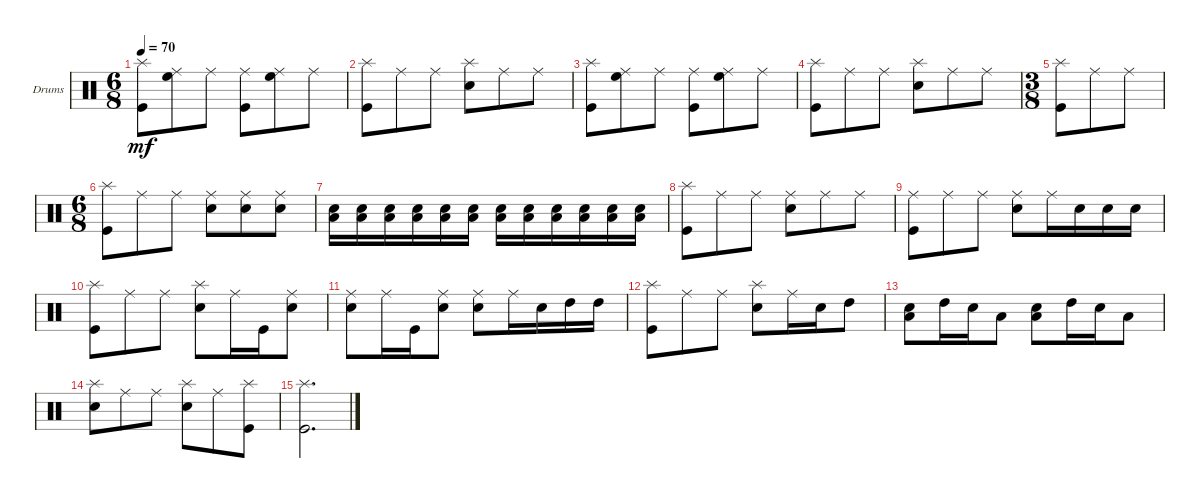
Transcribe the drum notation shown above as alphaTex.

\defaultSystemsLayout 4
\bracketExtendMode groupsimilarinstruments
\firstSystemTrackNameOrientation horizontal
\otherSystemsTrackNameOrientation horizontal
\track ("Drumkit" "Drums") {instrument percussion}
\staff {score}
\articulation defaults
\ts (6 8)
\tempo 70
\clef neutral
\scale
0.333333
\ks c
("Splash (hit)" "Kick (hit)").8{dy mf} ("Ride (middle)" "High Floor Tom (hit)").8 "Ride (middle)".8 ("Ride (middle)" "Kick (hit)").8 ("High Floor Tom (hit)" "Ride (middle)").8 "Ride (middle)".8 |
\scale
0.333333 ("Splash (hit)" "Kick (hit)").8 "Ride (middle)".8 "Ride (middle)".8 ("Splash (hit)" "Snare (hit) 2").8 "Ride (middle)".8 "Ride (middle)".8 |
\scale
0.263889 ("Splash (hit)" "Kick (hit)").8 ("Ride (middle)" "High Floor Tom (hit)").8 "Ride (middle)".8 ("Ride (middle)" "Kick (hit)").8 ("High Floor Tom (hit)" "Ride (middle)").8 "Ride (middle)".8 |
\scale
0.263889 ("Splash (hit)" "Kick (hit)").8 "Ride (middle)".8 "Ride (middle)".8 ("Splash (hit)" "Snare (hit) 2").8 "Ride (middle)".8 "Ride (middle)".8 |
\ts (3 8)
\scale
0.472222 ("Splash (hit)" "Kick (hit)").8 "Ride (middle)".8 "Ride (middle)".8 |
\ts (6 8)
\scale
0.472222 ("Splash (hit)" "Kick (hit)").8 "Ride (middle)".8 "Ride (middle)".8 ("Ride (middle)" "Snare (hit) 2").8 ("Ride (middle)" "Snare (hit) 2").8 ("Ride (middle)" "Snare (hit) 2").8 |
\scale
0.263889 ("Snare (hit) 2" "Low Tom (hit)").16 ("Snare (hit) 2" "Low Tom (hit)").16 ("Snare (hit) 2" "Low Tom (hit)").16 ("Snare (hit) 2" "Low Tom (hit)").16 ("Snare (hit) 2" "Low Tom (hit)").16 ("Snare (hit) 2" "Low Tom (hit)").16 ("Snare (hit) 2" "Low Tom (hit)").16 ("Snare (hit) 2" "Low Tom (hit)").16 ("Snare (hit) 2" "Low Tom (hit)").16 ("Snare (hit) 2" "Low Tom (hit)").16 ("Snare (hit) 2" "Low Tom (hit)").16 ("Snare (hit) 2" "Low Tom (hit)").16 |
\scale
0.263889 ("Splash (hit)" "Kick (hit)").8 "Ride (middle)".8 "Ride (middle)".8 ("Ride (middle)" "Snare (hit) 2").8 "Ride (middle)".8 "Ride (middle)".8 |
\scale
0.333333 ("Ride (middle)" "Kick (hit)").8 "Ride (middle)".8 "Ride (middle)".8 ("Ride (middle)" "Snare (hit) 2").8 "Ride (middle)".16 "Snare (hit) 2".16 "Snare (hit) 2".16 "Snare (hit) 2".16 |
\scale
0.333333 ("Splash (hit)" "Kick (hit)").8 "Ride (middle)".8 "Ride (middle)".8 ("Splash (hit)" "Snare (hit) 2").8 "Ride (middle)".16 "Kick (hit)".16 ("Snare (hit) 2" "Ride (middle)").8 |
\scale
0.333333 ("Ride (middle)" "Snare (hit) 2").8 "Ride (middle)".16 "Kick (hit)".16 ("Snare (hit) 2" "Ride (middle)").8 ("Ride (middle)" "Snare (hit) 2").8 "Ride (middle)".16 "Snare (hit) 2".16 "High Tom (hit)".16 "High Tom (hit)".16 |
\scale
0.333333 ("Splash (hit)" "Kick (hit)").8 "Ride (middle)".8 "Ride (middle)".8 ("Splash (hit)" "Snare (hit) 2").8 "Ride (middle)".16 "Snare (hit) 2".16 "High Tom (hit)".8 |
\scale
0.333333 ("Low Tom (hit)" "Snare (hit) 2").8 "High Tom (hit)".16 "Snare (hit) 2".16 "Low Tom (hit)".8 ("Low Tom (hit)" "Snare (hit) 2").8 "High Tom (hit)".16 "Snare (hit) 2".16 "Low Tom (hit)".8 |
\scale
0.333333 ("Snare (hit) 2" "Splash (hit)").8 "Ride (middle)".8 "Ride (middle)".8 ("Splash (hit)" "Snare (hit) 2").8 "Ride (middle)".8 ("Splash (hit)" "Kick (hit)").8 |
\scale
0.333333 ("Kick (hit)" "Splash (hit)").2{d} |
\scale
0.333333
